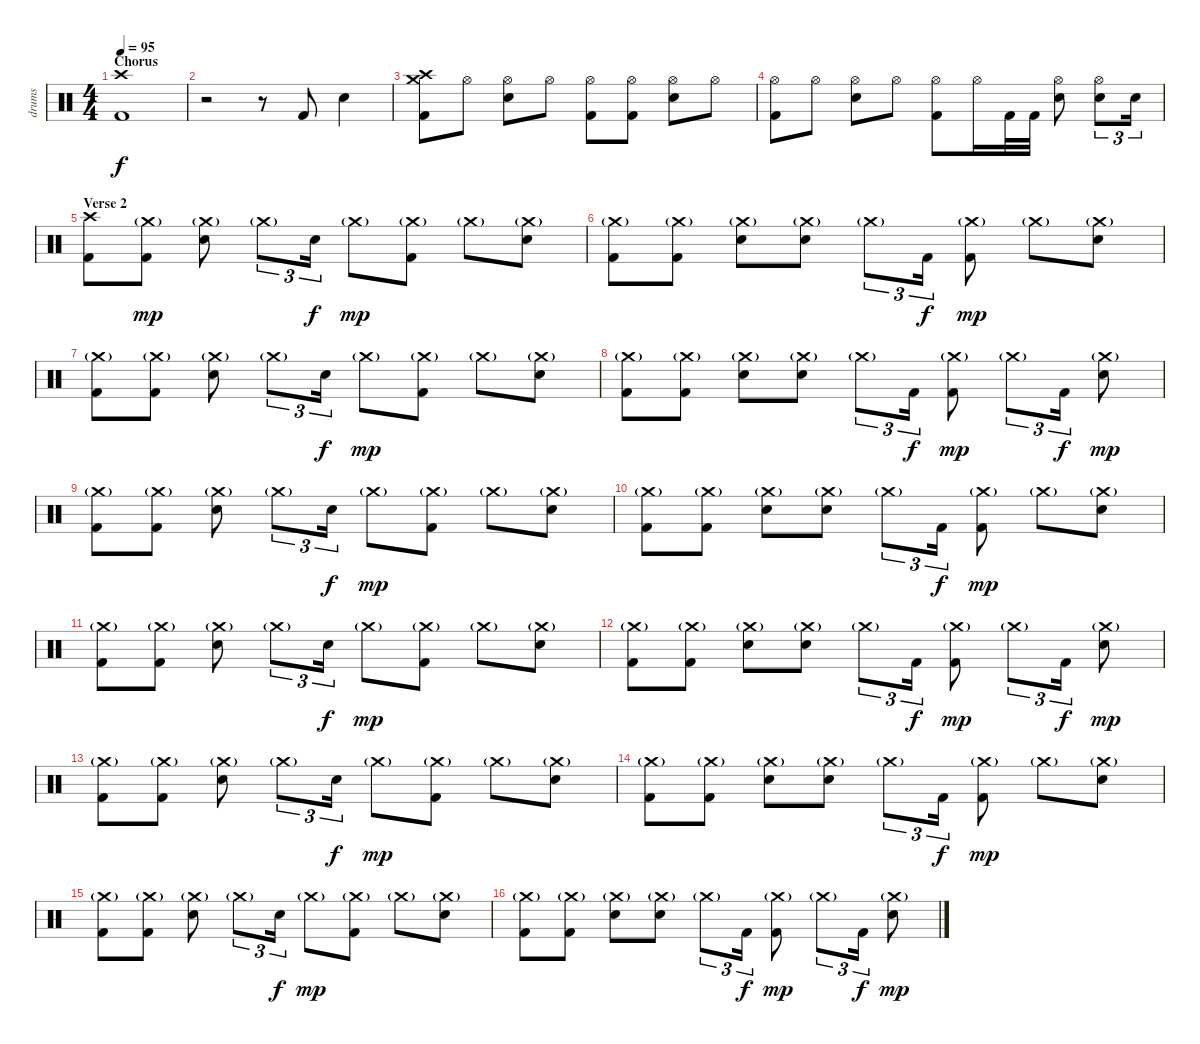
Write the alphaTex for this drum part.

\track ("drums" "drums") {instrument percussion}
\staff {score}
\articulation defaults
\ts (4 4)
\section ("" "Chorus")
\tempo 95
\clef neutral
\ks c
("Crash high (hit)" "Kick (hit) 2").1{dy f} |
r.2 r.8 "Kick (hit) 2".8 "Electric Snare (hit)".4 |
("Crash high (hit)" "Crash medium (hit)" "Kick (hit) 2").8 "Hi-Hat (open)".8 ("Hi-Hat (open)" "Electric Snare (hit)").8 "Hi-Hat (open)".8 ("Hi-Hat (open)" "Kick (hit) 2").8 ("Hi-Hat (open)" "Kick (hit) 2").8 ("Hi-Hat (open)" "Electric Snare (hit)").8 "Hi-Hat (open)".8 |
("Hi-Hat (open)" "Kick (hit) 2").8 "Hi-Hat (open)".8 ("Hi-Hat (open)" "Electric Snare (hit)").8 "Hi-Hat (open)".8 ("Hi-Hat (open)" "Kick (hit) 2").8 "Hi-Hat (open)".16 "Kick (hit) 2".32 "Kick (hit) 2".32 ("Hi-Hat (open)" "Electric Snare (hit)").8 ("Hi-Hat (open)" "Electric Snare (hit)").8{tu (3 2)} "Electric Snare (hit)".16{tu (3 2)} |
\section ("" "Verse 2")
("Crash high (hit)" "Kick (hit) 2").8 ("Crash medium (hit)"{g} "Kick (hit) 2").8{dy mp} ("Crash medium (hit)"{g} "Electric Snare (hit)").8 "Crash medium (hit)"{g}.8{tu (3 2)} "Electric Snare (hit)".16{tu (3 2) dy f} "Crash medium (hit)"{g}.8{dy mp} ("Crash medium (hit)"{g} "Kick (hit) 2").8 "Crash medium (hit)"{g}.8 ("Crash medium (hit)"{g} "Electric Snare (hit)").8 |
("Crash medium (hit)"{g} "Kick (hit) 2").8 ("Crash medium (hit)"{g} "Kick (hit) 2").8 ("Crash medium (hit)"{g} "Electric Snare (hit)").8 ("Crash medium (hit)"{g} "Electric Snare (hit)").8 "Crash medium (hit)"{g}.8{tu (3 2)} "Kick (hit) 2".16{tu (3 2) dy f} ("Crash medium (hit)"{g} "Kick (hit) 2").8{dy mp} "Crash medium (hit)"{g}.8 ("Crash medium (hit)"{g} "Electric Snare (hit)").8 |
("Crash medium (hit)"{g} "Kick (hit) 2").8 ("Crash medium (hit)"{g} "Kick (hit) 2").8 ("Crash medium (hit)"{g} "Electric Snare (hit)").8 "Crash medium (hit)"{g}.8{tu (3 2)} "Electric Snare (hit)".16{tu (3 2) dy f} "Crash medium (hit)"{g}.8{dy mp} ("Crash medium (hit)"{g} "Kick (hit) 2").8 "Crash medium (hit)"{g}.8 ("Crash medium (hit)"{g} "Electric Snare (hit)").8 |
("Crash medium (hit)"{g} "Kick (hit) 2").8 ("Crash medium (hit)"{g} "Kick (hit) 2").8 ("Crash medium (hit)"{g} "Electric Snare (hit)").8 ("Crash medium (hit)"{g} "Electric Snare (hit)").8 "Crash medium (hit)"{g}.8{tu (3 2)} "Kick (hit) 2".16{tu (3 2) dy f} ("Crash medium (hit)"{g} "Kick (hit) 2").8{dy mp} "Crash medium (hit)"{g}.8{tu (3 2)} "Kick (hit) 2".16{tu (3 2) dy f} ("Crash medium (hit)"{g} "Electric Snare (hit)").8{dy mp} |
("Crash medium (hit)"{g} "Kick (hit) 2").8 ("Crash medium (hit)"{g} "Kick (hit) 2").8 ("Crash medium (hit)"{g} "Electric Snare (hit)").8 "Crash medium (hit)"{g}.8{tu (3 2)} "Electric Snare (hit)".16{tu (3 2) dy f} "Crash medium (hit)"{g}.8{dy mp} ("Crash medium (hit)"{g} "Kick (hit) 2").8 "Crash medium (hit)"{g}.8 ("Crash medium (hit)"{g} "Electric Snare (hit)").8 |
("Crash medium (hit)"{g} "Kick (hit) 2").8 ("Crash medium (hit)"{g} "Kick (hit) 2").8 ("Crash medium (hit)"{g} "Electric Snare (hit)").8 ("Crash medium (hit)"{g} "Electric Snare (hit)").8 "Crash medium (hit)"{g}.8{tu (3 2)} "Kick (hit) 2".16{tu (3 2) dy f} ("Crash medium (hit)"{g} "Kick (hit) 2").8{dy mp} "Crash medium (hit)"{g}.8 ("Crash medium (hit)"{g} "Electric Snare (hit)").8 |
("Crash medium (hit)"{g} "Kick (hit) 2").8 ("Crash medium (hit)"{g} "Kick (hit) 2").8 ("Crash medium (hit)"{g} "Electric Snare (hit)").8 "Crash medium (hit)"{g}.8{tu (3 2)} "Electric Snare (hit)".16{tu (3 2) dy f} "Crash medium (hit)"{g}.8{dy mp} ("Crash medium (hit)"{g} "Kick (hit) 2").8 "Crash medium (hit)"{g}.8 ("Crash medium (hit)"{g} "Electric Snare (hit)").8 |
("Crash medium (hit)"{g} "Kick (hit) 2").8 ("Crash medium (hit)"{g} "Kick (hit) 2").8 ("Crash medium (hit)"{g} "Electric Snare (hit)").8 ("Crash medium (hit)"{g} "Electric Snare (hit)").8 "Crash medium (hit)"{g}.8{tu (3 2)} "Kick (hit) 2".16{tu (3 2) dy f} ("Crash medium (hit)"{g} "Kick (hit) 2").8{dy mp} "Crash medium (hit)"{g}.8{tu (3 2)} "Kick (hit) 2".16{tu (3 2) dy f} ("Crash medium (hit)"{g} "Electric Snare (hit)").8{dy mp} |
("Crash medium (hit)"{g} "Kick (hit) 2").8 ("Crash medium (hit)"{g} "Kick (hit) 2").8 ("Crash medium (hit)"{g} "Electric Snare (hit)").8 "Crash medium (hit)"{g}.8{tu (3 2)} "Electric Snare (hit)".16{tu (3 2) dy f} "Crash medium (hit)"{g}.8{dy mp} ("Crash medium (hit)"{g} "Kick (hit) 2").8 "Crash medium (hit)"{g}.8 ("Crash medium (hit)"{g} "Electric Snare (hit)").8 |
("Crash medium (hit)"{g} "Kick (hit) 2").8 ("Crash medium (hit)"{g} "Kick (hit) 2").8 ("Crash medium (hit)"{g} "Electric Snare (hit)").8 ("Crash medium (hit)"{g} "Electric Snare (hit)").8 "Crash medium (hit)"{g}.8{tu (3 2)} "Kick (hit) 2".16{tu (3 2) dy f} ("Crash medium (hit)"{g} "Kick (hit) 2").8{dy mp} "Crash medium (hit)"{g}.8 ("Crash medium (hit)"{g} "Electric Snare (hit)").8 |
("Crash medium (hit)"{g} "Kick (hit) 2").8 ("Crash medium (hit)"{g} "Kick (hit) 2").8 ("Crash medium (hit)"{g} "Electric Snare (hit)").8 "Crash medium (hit)"{g}.8{tu (3 2)} "Electric Snare (hit)".16{tu (3 2) dy f} "Crash medium (hit)"{g}.8{dy mp} ("Crash medium (hit)"{g} "Kick (hit) 2").8 "Crash medium (hit)"{g}.8 ("Crash medium (hit)"{g} "Electric Snare (hit)").8 |
("Crash medium (hit)"{g} "Kick (hit) 2").8 ("Crash medium (hit)"{g} "Kick (hit) 2").8 ("Crash medium (hit)"{g} "Electric Snare (hit)").8 ("Crash medium (hit)"{g} "Electric Snare (hit)").8 "Crash medium (hit)"{g}.8{tu (3 2)} "Kick (hit) 2".16{tu (3 2) dy f} ("Crash medium (hit)"{g} "Kick (hit) 2").8{dy mp} "Crash medium (hit)"{g}.8{tu (3 2)} "Kick (hit) 2".16{tu (3 2) dy f} ("Crash medium (hit)"{g} "Electric Snare (hit)").8{dy mp}
